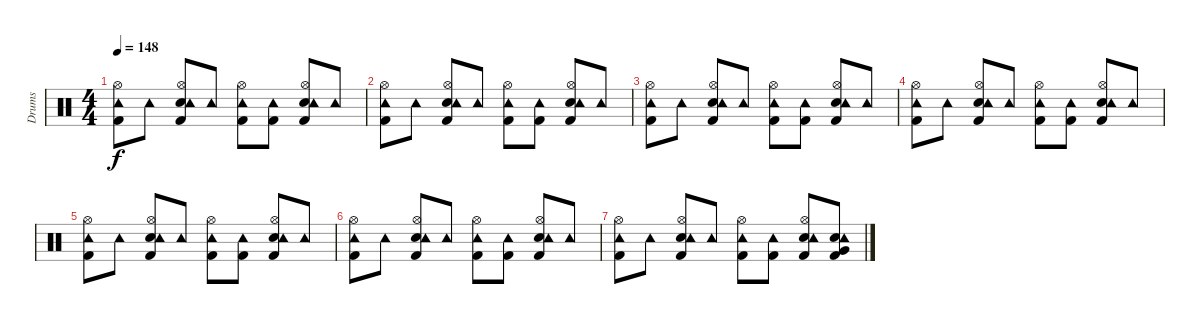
\track ("Drums" "Drums") {instrument percussion}
\staff {score}
\articulation defaults
\ts (4 4)
\tempo 148
\clef neutral
\ks c
("Kick (hit) 2" "Tambourine (hit)" "Hi-Hat (open)").8{dy f} "Tambourine (hit)".8 ("Kick (hit) 2" "Electric Snare (hit)" "Tambourine (hit)" "Hi-Hat (open)").8 "Tambourine (hit)".8 ("Kick (hit) 2" "Tambourine (hit)" "Hi-Hat (open)").8 ("Kick (hit) 2" "Tambourine (hit)").8 ("Kick (hit) 2" "Electric Snare (hit)" "Tambourine (hit)" "Hi-Hat (open)").8 "Tambourine (hit)".8 |
("Kick (hit) 2" "Tambourine (hit)" "Hi-Hat (open)").8 "Tambourine (hit)".8 ("Kick (hit) 2" "Electric Snare (hit)" "Tambourine (hit)" "Hi-Hat (open)").8 "Tambourine (hit)".8 ("Kick (hit) 2" "Tambourine (hit)" "Hi-Hat (open)").8 ("Kick (hit) 2" "Tambourine (hit)").8 ("Kick (hit) 2" "Electric Snare (hit)" "Tambourine (hit)" "Hi-Hat (open)").8 "Tambourine (hit)".8 |
("Kick (hit) 2" "Tambourine (hit)" "Hi-Hat (open)").8 "Tambourine (hit)".8 ("Kick (hit) 2" "Electric Snare (hit)" "Tambourine (hit)" "Hi-Hat (open)").8 "Tambourine (hit)".8 ("Kick (hit) 2" "Tambourine (hit)" "Hi-Hat (open)").8 ("Kick (hit) 2" "Tambourine (hit)").8 ("Kick (hit) 2" "Electric Snare (hit)" "Tambourine (hit)" "Hi-Hat (open)").8 "Tambourine (hit)".8 |
("Kick (hit) 2" "Tambourine (hit)" "Hi-Hat (open)").8 "Tambourine (hit)".8 ("Kick (hit) 2" "Electric Snare (hit)" "Tambourine (hit)" "Hi-Hat (open)").8 "Tambourine (hit)".8 ("Kick (hit) 2" "Tambourine (hit)" "Hi-Hat (open)").8 ("Kick (hit) 2" "Tambourine (hit)").8 ("Kick (hit) 2" "Electric Snare (hit)" "Tambourine (hit)" "Hi-Hat (open)").8 "Tambourine (hit)".8 |
("Kick (hit) 2" "Tambourine (hit)" "Hi-Hat (open)").8 "Tambourine (hit)".8 ("Kick (hit) 2" "Electric Snare (hit)" "Tambourine (hit)" "Hi-Hat (open)").8 "Tambourine (hit)".8 ("Kick (hit) 2" "Tambourine (hit)" "Hi-Hat (open)").8 ("Kick (hit) 2" "Tambourine (hit)").8 ("Kick (hit) 2" "Electric Snare (hit)" "Tambourine (hit)" "Hi-Hat (open)").8 "Tambourine (hit)".8 |
("Kick (hit) 2" "Tambourine (hit)" "Hi-Hat (open)").8 "Tambourine (hit)".8 ("Kick (hit) 2" "Electric Snare (hit)" "Tambourine (hit)" "Hi-Hat (open)").8 "Tambourine (hit)".8 ("Kick (hit) 2" "Tambourine (hit)" "Hi-Hat (open)").8 ("Kick (hit) 2" "Tambourine (hit)").8 ("Kick (hit) 2" "Electric Snare (hit)" "Tambourine (hit)" "Hi-Hat (open)").8 "Tambourine (hit)".8 |
("Kick (hit) 2" "Tambourine (hit)" "Hi-Hat (open)").8 "Tambourine (hit)".8 ("Kick (hit) 2" "Electric Snare (hit)" "Tambourine (hit)" "Hi-Hat (open)").8 "Tambourine (hit)".8 ("Kick (hit) 2" "Tambourine (hit)" "Hi-Hat (open)").8 ("Kick (hit) 2" "Tambourine (hit)").8 ("Kick (hit) 2" "Electric Snare (hit)" "Tambourine (hit)" "Hi-Hat (open)").8 ("Kick (hit) 2" "Electric Snare (hit)" "Very Low Tom (hit)" "Tambourine (hit)").8
